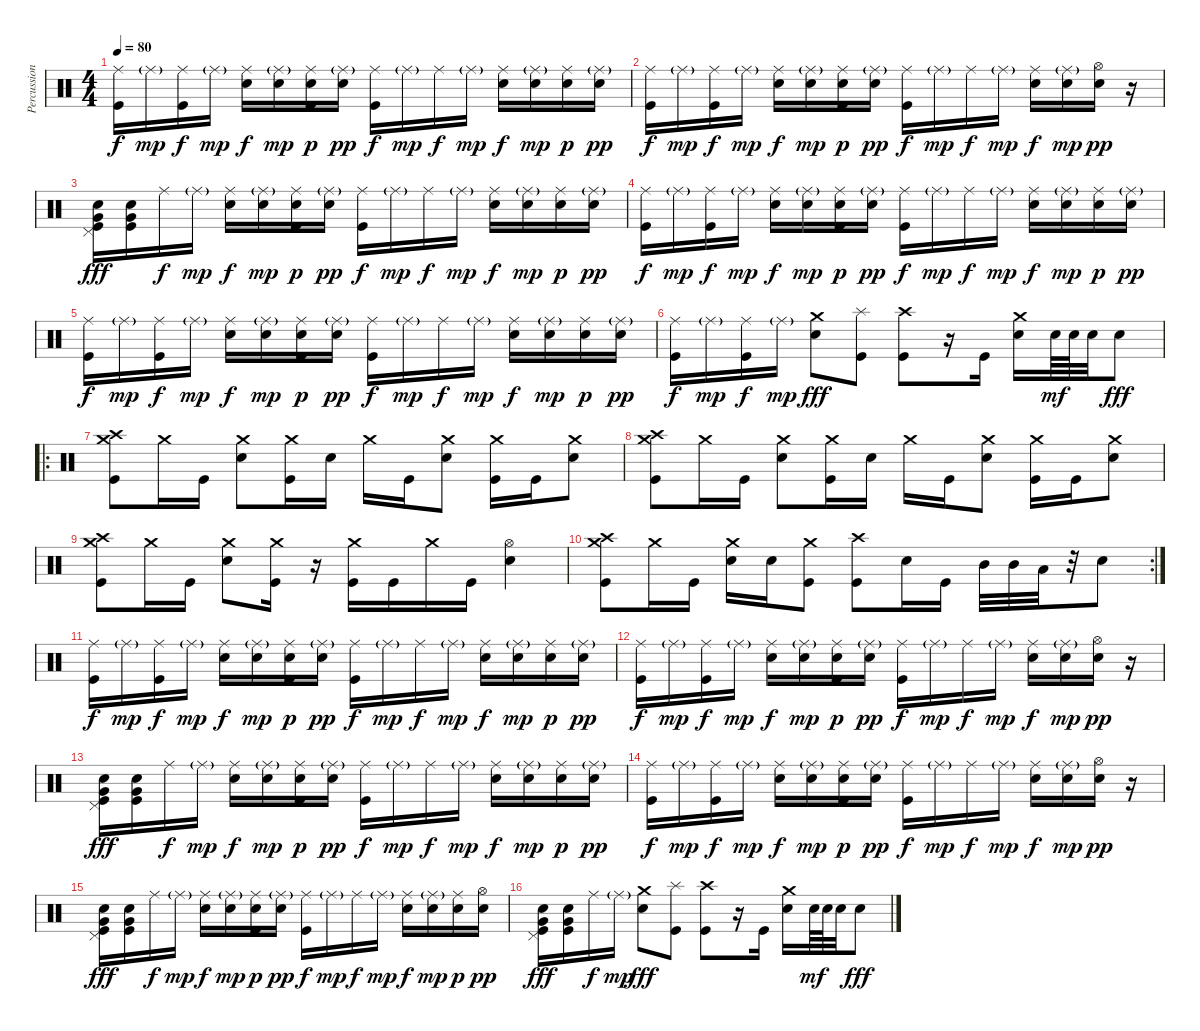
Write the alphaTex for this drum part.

\track ("Percussion" "Percussion") {instrument percussion}
\staff {score}
\articulation defaults
\ts (4 4)
\tempo 80
\clef neutral
\ks c
("Ride (middle)" "Kick (hit)").16{dy f} "Ride (middle)"{g}.16{dy mp} ("Ride (middle)" "Kick (hit)").16{dy f} "Ride (middle)"{g}.16{dy mp} ("Ride (middle)" "Electric Snare (hit)").16{dy f} ("Ride (middle)"{g} "Electric Snare (hit)").16{dy mp} ("Ride (middle)" "Electric Snare (hit)" "Kick (hit)").16{dy p} ("Ride (middle)"{g} "Electric Snare (hit)").16{dy pp} ("Ride (middle)" "Kick (hit)").16{dy f} "Ride (middle)"{g}.16{dy mp} "Ride (middle)".16{dy f} "Ride (middle)"{g}.16{dy mp} ("Ride (middle)" "Electric Snare (hit)").16{dy f} ("Ride (middle)"{g} "Electric Snare (hit)").16{dy mp} ("Ride (middle)" "Electric Snare (hit)").16{dy p} ("Ride (middle)"{g} "Electric Snare (hit)").16{dy pp} |
("Ride (middle)" "Kick (hit)").16{dy f} "Ride (middle)"{g}.16{dy mp} ("Ride (middle)" "Kick (hit)").16{dy f} "Ride (middle)"{g}.16{dy mp} ("Ride (middle)" "Electric Snare (hit)").16{dy f} ("Ride (middle)"{g} "Electric Snare (hit)").16{dy mp} ("Ride (middle)" "Electric Snare (hit)" "Kick (hit)").16{dy p} ("Ride (middle)"{g} "Electric Snare (hit)").16{dy pp} ("Ride (middle)" "Kick (hit)").16{dy f} "Ride (middle)"{g}.16{dy mp} "Ride (middle)".16{dy f} "Ride (middle)"{g}.16{dy mp} ("Ride (middle)" "Electric Snare (hit)").16{dy f} ("Ride (middle)"{g} "Electric Snare (hit)").16{dy mp} ("Hi-Hat (open)" "Electric Snare (hit)").16{dy pp} r.16 |
("Pedal Hi-Hat (hit)" "Very Low Tom (hit)" "Electric Snare (hit)" "Kick (hit)").16{dy fff} ("Very Low Tom (hit)" "Electric Snare (hit)" "Kick (hit)").16 "Ride (middle)".16{dy f} "Ride (middle)"{g}.16{dy mp} ("Ride (middle)" "Electric Snare (hit)").16{dy f} ("Ride (middle)"{g} "Electric Snare (hit)").16{dy mp} ("Ride (middle)" "Electric Snare (hit)" "Kick (hit)").16{dy p} ("Ride (middle)"{g} "Electric Snare (hit)").16{dy pp} ("Ride (middle)" "Kick (hit)").16{dy f} "Ride (middle)"{g}.16{dy mp} "Ride (middle)".16{dy f} "Ride (middle)"{g}.16{dy mp} ("Ride (middle)" "Electric Snare (hit)").16{dy f} ("Ride (middle)"{g} "Electric Snare (hit)").16{dy mp} ("Ride (middle)" "Electric Snare (hit)").16{dy p} ("Ride (middle)"{g} "Electric Snare (hit)").16{dy pp} |
("Ride (middle)" "Kick (hit)").16{dy f} "Ride (middle)"{g}.16{dy mp} ("Ride (middle)" "Kick (hit)").16{dy f} "Ride (middle)"{g}.16{dy mp} ("Ride (middle)" "Electric Snare (hit)").16{dy f} ("Ride (middle)"{g} "Electric Snare (hit)").16{dy mp} ("Ride (middle)" "Electric Snare (hit)" "Kick (hit)").16{dy p} ("Ride (middle)"{g} "Electric Snare (hit)").16{dy pp} ("Ride (middle)" "Kick (hit)").16{dy f} "Ride (middle)"{g}.16{dy mp} "Ride (middle)".16{dy f} "Ride (middle)"{g}.16{dy mp} ("Ride (middle)" "Electric Snare (hit)").16{dy f} ("Ride (middle)"{g} "Electric Snare (hit)").16{dy mp} ("Ride (middle)" "Electric Snare (hit)").16{dy p} ("Ride (middle)"{g} "Electric Snare (hit)").16{dy pp} |
("Ride (middle)" "Kick (hit)").16{dy f} "Ride (middle)"{g}.16{dy mp} ("Ride (middle)" "Kick (hit)").16{dy f} "Ride (middle)"{g}.16{dy mp} ("Ride (middle)" "Electric Snare (hit)").16{dy f} ("Ride (middle)"{g} "Electric Snare (hit)").16{dy mp} ("Ride (middle)" "Electric Snare (hit)" "Kick (hit)").16{dy p} ("Ride (middle)"{g} "Electric Snare (hit)").16{dy pp} ("Ride (middle)" "Kick (hit)").16{dy f} "Ride (middle)"{g}.16{dy mp} "Ride (middle)".16{dy f} "Ride (middle)"{g}.16{dy mp} ("Ride (middle)" "Electric Snare (hit)").16{dy f} ("Ride (middle)"{g} "Electric Snare (hit)").16{dy mp} ("Ride (middle)" "Electric Snare (hit)").16{dy p} ("Ride (middle)"{g} "Electric Snare (hit)").16{dy pp} |
("Ride (middle)" "Kick (hit)").16{dy f} "Ride (middle)"{g}.16{dy mp} ("Ride (middle)" "Kick (hit)").16{dy f} "Ride (middle)"{g}.16{dy mp} ("Crash medium (hit)" "Electric Snare (hit)").8{dy fff} ("Splash (hit)" "Kick (hit)").8 ("Crash high (hit)" "Kick (hit)").8 r.16 "Kick (hit)".16 ("Crash medium (hit)" "Electric Snare (hit)").16 "Electric Snare (hit)".64{dy mf} "Electric Snare (hit)".64 "Electric Snare (hit)".32 "Electric Snare (hit)".8{dy fff} |
\ro
("Crash medium (hit)" "Crash high (hit)" "Kick (hit)").8 "Crash medium (hit)".16 "Kick (hit)".16 ("Crash medium (hit)" "Electric Snare (hit)").8 ("Crash medium (hit)" "Kick (hit)").16 "Electric Snare (hit)".16 "Crash medium (hit)".16 "Kick (hit)".16 ("Crash medium (hit)" "Electric Snare (hit)").8 ("Crash medium (hit)" "Kick (hit)").16 "Kick (hit)".16 ("Crash medium (hit)" "Electric Snare (hit)").8 |
("Crash medium (hit)" "Crash high (hit)" "Kick (hit)").8 "Crash medium (hit)".16 "Kick (hit)".16 ("Crash medium (hit)" "Electric Snare (hit)").8 ("Crash medium (hit)" "Kick (hit)").16 "Electric Snare (hit)".16 "Crash medium (hit)".16 "Kick (hit)".16 ("Crash medium (hit)" "Electric Snare (hit)").8 ("Crash medium (hit)" "Kick (hit)").16 "Kick (hit)".16 ("Crash medium (hit)" "Electric Snare (hit)").8 |
("Crash medium (hit)" "Crash high (hit)" "Kick (hit)").8 "Crash medium (hit)".16 "Kick (hit)".16 ("Crash medium (hit)" "Electric Snare (hit)").8 ("Crash medium (hit)" "Kick (hit)").16 r.16 ("Crash medium (hit)" "Kick (hit)").16 "Kick (hit)".16 "Crash medium (hit)".16 "Kick (hit)".16 ("Hi-Hat (open)" "Electric Snare (hit)").4 |
\rc 2
("Crash medium (hit)" "Crash high (hit)" "Kick (hit)").8 "Crash medium (hit)".16 "Kick (hit)".16 ("Crash medium (hit)" "Electric Snare (hit)").16 "Electric Snare (hit)".16 ("Crash medium (hit)" "Kick (hit)").8 ("Crash high (hit)" "Kick (hit)").8 "Electric Snare (hit)".16 "Kick (hit)".16 "Mid Tom (hit)".32 "Mid Tom (hit)".32 "Low Tom (hit)".32 r.32 "Electric Snare (hit)".8 |
("Ride (middle)" "Kick (hit)").16{dy f} "Ride (middle)"{g}.16{dy mp} ("Ride (middle)" "Kick (hit)").16{dy f} "Ride (middle)"{g}.16{dy mp} ("Ride (middle)" "Electric Snare (hit)").16{dy f} ("Ride (middle)"{g} "Electric Snare (hit)").16{dy mp} ("Ride (middle)" "Electric Snare (hit)" "Kick (hit)").16{dy p} ("Ride (middle)"{g} "Electric Snare (hit)").16{dy pp} ("Ride (middle)" "Kick (hit)").16{dy f} "Ride (middle)"{g}.16{dy mp} "Ride (middle)".16{dy f} "Ride (middle)"{g}.16{dy mp} ("Ride (middle)" "Electric Snare (hit)").16{dy f} ("Ride (middle)"{g} "Electric Snare (hit)").16{dy mp} ("Ride (middle)" "Electric Snare (hit)").16{dy p} ("Ride (middle)"{g} "Electric Snare (hit)").16{dy pp} |
("Ride (middle)" "Kick (hit)").16{dy f} "Ride (middle)"{g}.16{dy mp} ("Ride (middle)" "Kick (hit)").16{dy f} "Ride (middle)"{g}.16{dy mp} ("Ride (middle)" "Electric Snare (hit)").16{dy f} ("Ride (middle)"{g} "Electric Snare (hit)").16{dy mp} ("Ride (middle)" "Electric Snare (hit)" "Kick (hit)").16{dy p} ("Ride (middle)"{g} "Electric Snare (hit)").16{dy pp} ("Ride (middle)" "Kick (hit)").16{dy f} "Ride (middle)"{g}.16{dy mp} "Ride (middle)".16{dy f} "Ride (middle)"{g}.16{dy mp} ("Ride (middle)" "Electric Snare (hit)").16{dy f} ("Ride (middle)"{g} "Electric Snare (hit)").16{dy mp} ("Hi-Hat (open)" "Electric Snare (hit)").16{dy pp} r.16 |
("Pedal Hi-Hat (hit)" "Very Low Tom (hit)" "Electric Snare (hit)" "Kick (hit)").16{dy fff} ("Very Low Tom (hit)" "Electric Snare (hit)" "Kick (hit)").16 "Ride (middle)".16{dy f} "Ride (middle)"{g}.16{dy mp} ("Ride (middle)" "Electric Snare (hit)").16{dy f} ("Ride (middle)"{g} "Electric Snare (hit)").16{dy mp} ("Ride (middle)" "Electric Snare (hit)" "Kick (hit)").16{dy p} ("Ride (middle)"{g} "Electric Snare (hit)").16{dy pp} ("Ride (middle)" "Kick (hit)").16{dy f} "Ride (middle)"{g}.16{dy mp} "Ride (middle)".16{dy f} "Ride (middle)"{g}.16{dy mp} ("Ride (middle)" "Electric Snare (hit)").16{dy f} ("Ride (middle)"{g} "Electric Snare (hit)").16{dy mp} ("Ride (middle)" "Electric Snare (hit)").16{dy p} ("Ride (middle)"{g} "Electric Snare (hit)").16{dy pp} |
("Ride (middle)" "Kick (hit)").16{dy f} "Ride (middle)"{g}.16{dy mp} ("Ride (middle)" "Kick (hit)").16{dy f} "Ride (middle)"{g}.16{dy mp} ("Ride (middle)" "Electric Snare (hit)").16{dy f} ("Ride (middle)"{g} "Electric Snare (hit)").16{dy mp} ("Ride (middle)" "Electric Snare (hit)" "Kick (hit)").16{dy p} ("Ride (middle)"{g} "Electric Snare (hit)").16{dy pp} ("Ride (middle)" "Kick (hit)").16{dy f} "Ride (middle)"{g}.16{dy mp} "Ride (middle)".16{dy f} "Ride (middle)"{g}.16{dy mp} ("Ride (middle)" "Electric Snare (hit)").16{dy f} ("Ride (middle)"{g} "Electric Snare (hit)").16{dy mp} ("Hi-Hat (open)" "Electric Snare (hit)").16{dy pp} r.16 |
("Pedal Hi-Hat (hit)" "Very Low Tom (hit)" "Electric Snare (hit)" "Kick (hit)").16{dy fff} ("Very Low Tom (hit)" "Electric Snare (hit)" "Kick (hit)").16 "Ride (middle)".16{dy f} "Ride (middle)"{g}.16{dy mp} ("Ride (middle)" "Electric Snare (hit)").16{dy f} ("Ride (middle)"{g} "Electric Snare (hit)").16{dy mp} ("Ride (middle)" "Electric Snare (hit)" "Kick (hit)").16{dy p} ("Ride (middle)"{g} "Electric Snare (hit)").16{dy pp} ("Ride (middle)" "Kick (hit)").16{dy f} "Ride (middle)"{g}.16{dy mp} "Ride (middle)".16{dy f} "Ride (middle)"{g}.16{dy mp} ("Ride (middle)" "Electric Snare (hit)").16{dy f} ("Ride (middle)"{g} "Electric Snare (hit)").16{dy mp} ("Ride (middle)" "Electric Snare (hit)").16{dy p} ("Hi-Hat (open)" "Electric Snare (hit)").16{dy pp} |
("Pedal Hi-Hat (hit)" "Electric Snare (hit)" "Very Low Tom (hit)" "Kick (hit)").16{dy fff} ("Electric Snare (hit)" "Very Low Tom (hit)" "Kick (hit)").16 "Ride (middle)".16{dy f} "Ride (middle)"{g}.16{dy mp} ("Crash medium (hit)" "Electric Snare (hit)").8{dy fff} ("Splash (hit)" "Kick (hit)").8 ("Crash high (hit)" "Kick (hit)").8 r.16 "Kick (hit)".16 ("Crash medium (hit)" "Electric Snare (hit)").16 "Electric Snare (hit)".64{dy mf} "Electric Snare (hit)".64 "Electric Snare (hit)".32 "Electric Snare (hit)".8{dy fff}
